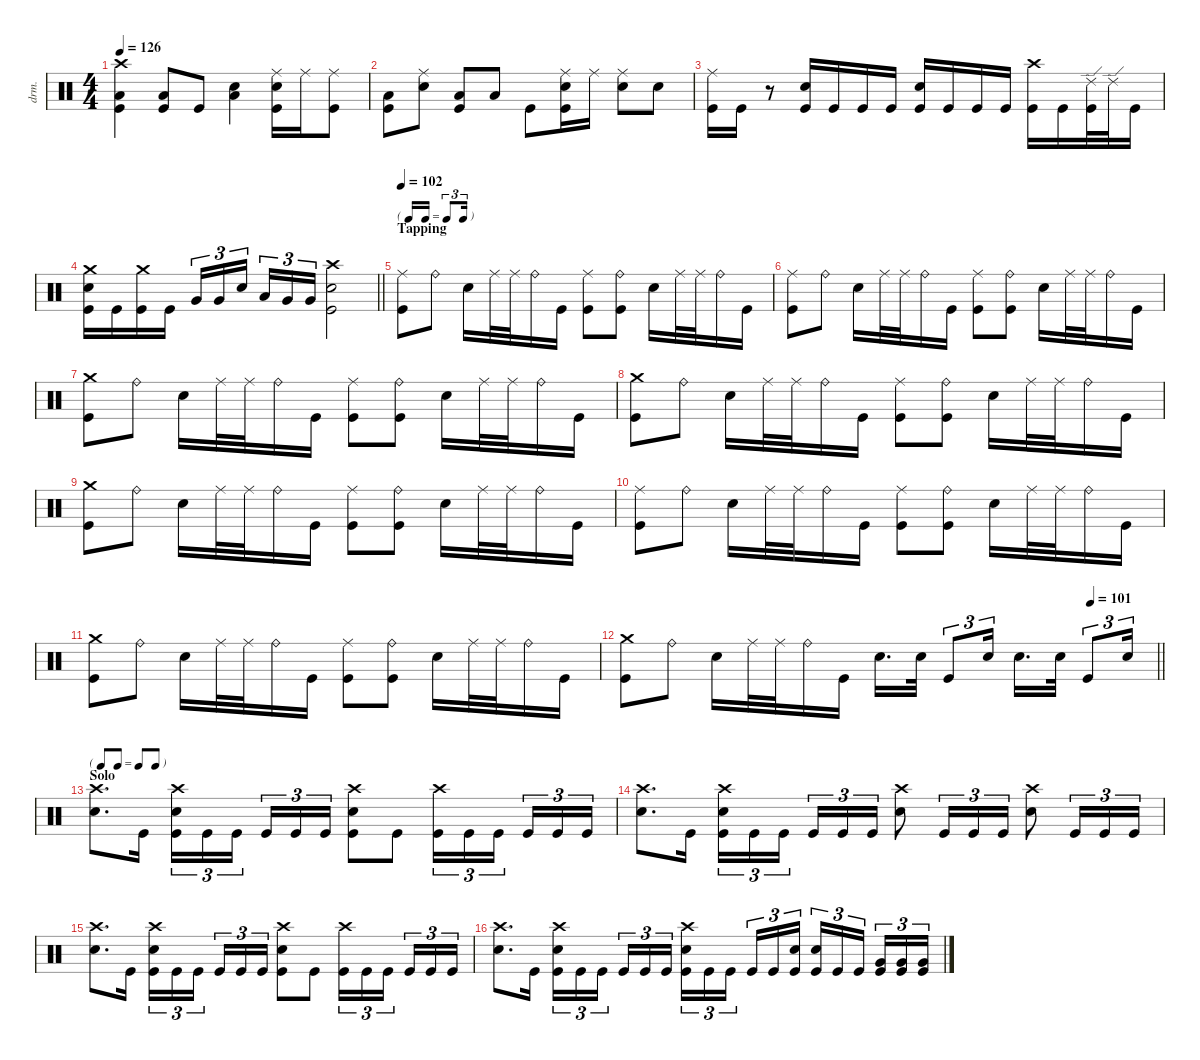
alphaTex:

\defaultSystemsLayout 4
\hideDynamics
\bracketExtendMode nobrackets
\track ("Gene Hoglan " "drm.") {instrument percussion}
\staff {score}
\articulation defaults
\ts (4 4)
\tempo 126
\clef neutral
\ks c
("Crash high (hit)" "Low Floor Tom (hit)" "Kick (hit)").4{dy f} ("Low Floor Tom (hit)" "Kick (hit)").8 "Kick (hit)".8 ("Snare (hit) 2" "Low Floor Tom (hit)").4 ("Ride (middle)" "Snare (hit) 2" "Kick (hit)").16 "Ride (middle)".16 ("Ride (middle)" "Kick (hit)").8 |
("Low Floor Tom (hit)" "Kick (hit)").8 ("Ride (middle)" "Snare (hit) 2").8 ("Low Floor Tom (hit)" "Kick (hit)").8 "Low Floor Tom (hit)".8 "Kick (hit)".8 ("Ride (middle)" "Snare (hit) 2" "Kick (hit)").16 "Ride (middle)".16 ("Ride (middle)" "Snare (hit) 2").8 "Snare (hit) 2".8 |
("Ride (middle)" "Kick (hit)").16 "Kick (hit)".16 r.8 ("Snare (hit) 2" "Kick (hit)").16 "Kick (hit)".16 "Kick (hit)".16 "Kick (hit)".16 ("Snare (hit) 2" "Kick (hit)").16 "Kick (hit)".16 "Kick (hit)".16 "Kick (hit)".16 ("Crash high (hit)" "Kick (hit)").16 "Kick (hit)".16 ("Ride (edge) 2" "Kick (hit)").32 "Ride (edge) 2".32 "Kick (hit)".16 |
\barLineRight lightlight
("Crash medium (hit)" "Snare (hit) 2" "Kick (hit)").16 "Kick (hit)".16 ("Crash medium (hit)" "Kick (hit)").16 "Kick (hit)".16 "Very Low Tom (hit)".16{tu (3 2)} "Very Low Tom (hit)".16{tu (3 2)} "Snare (hit) 2".16{tu (3 2)} "Low Tom (hit)".16{tu (3 2)} "Very Low Tom (hit)".16{tu (3 2)} "Very Low Tom (hit)".16{tu (3 2)} ("Crash high (hit)" "Snare (hit) 2" "Kick (hit)").2 |
\tf triplet16th
\section ("" "Tapping")
\tempo 102
("Ride (middle)" "Kick (hit)").8 "Ride (bell)".8 "Snare (hit) 2".16 "Ride (middle)".32 "Ride (middle)".32 "Ride (bell)".16 "Kick (hit)".16 ("Ride (middle)" "Kick (hit)").8 ("Ride (bell)" "Kick (hit)").8 "Snare (hit) 2".16 "Ride (middle)".32 "Ride (middle)".32 "Ride (bell)".16 "Kick (hit)".16 |
("Ride (middle)" "Kick (hit)").8 "Ride (bell)".8 "Snare (hit) 2".16 "Ride (middle)".32 "Ride (middle)".32 "Ride (bell)".16 "Kick (hit)".16 ("Ride (middle)" "Kick (hit)").8 ("Ride (bell)" "Kick (hit)").8 "Snare (hit) 2".16 "Ride (middle)".32 "Ride (middle)".32 "Ride (bell)".16 "Kick (hit)".16 |
("Crash medium (hit)" "Kick (hit)").8 "Ride (bell)".8 "Snare (hit) 2".16 "Ride (middle)".32 "Ride (middle)".32 "Ride (bell)".16 "Kick (hit)".16 ("Ride (middle)" "Kick (hit)").8 ("Ride (bell)" "Kick (hit)").8 "Snare (hit) 2".16 "Ride (middle)".32 "Ride (middle)".32 "Ride (bell)".16 "Kick (hit)".16 |
("Crash medium (hit)" "Kick (hit)").8 "Ride (bell)".8 "Snare (hit) 2".16 "Ride (middle)".32 "Ride (middle)".32 "Ride (bell)".16 "Kick (hit)".16 ("Ride (middle)" "Kick (hit)").8 ("Ride (bell)" "Kick (hit)").8 "Snare (hit) 2".16 "Ride (middle)".32 "Ride (middle)".32 "Ride (bell)".16 "Kick (hit)".16 |
("Crash medium (hit)" "Kick (hit)").8 "Ride (bell)".8 "Snare (hit) 2".16 "Ride (middle)".32 "Ride (middle)".32 "Ride (bell)".16 "Kick (hit)".16 ("Ride (middle)" "Kick (hit)").8 ("Ride (bell)" "Kick (hit)").8 "Snare (hit) 2".16 "Ride (middle)".32 "Ride (middle)".32 "Ride (bell)".16 "Kick (hit)".16 |
("Ride (middle)" "Kick (hit)").8 "Ride (bell)".8 "Snare (hit) 2".16 "Ride (middle)".32 "Ride (middle)".32 "Ride (bell)".16 "Kick (hit)".16 ("Ride (middle)" "Kick (hit)").8 ("Ride (bell)" "Kick (hit)").8 "Snare (hit) 2".16 "Ride (middle)".32 "Ride (middle)".32 "Ride (bell)".16 "Kick (hit)".16 |
("Crash medium (hit)" "Kick (hit)").8 "Ride (bell)".8 "Snare (hit) 2".16 "Ride (middle)".32 "Ride (middle)".32 "Ride (bell)".16 "Kick (hit)".16 ("Ride (middle)" "Kick (hit)").8 ("Ride (bell)" "Kick (hit)").8 "Snare (hit) 2".16 "Ride (middle)".32 "Ride (middle)".32 "Ride (bell)".16 "Kick (hit)".16 |
\tempo (101 0.875)
\barLineRight lightlight
("Crash medium (hit)" "Kick (hit)").8 "Ride (bell)".8 "Snare (hit) 2".16 "Ride (middle)".32 "Ride (middle)".32 "Ride (bell)".16 "Kick (hit)".16 "Snare (hit) 2".16{d} "Snare (hit) 2".32 "Kick (hit)".8{tu (3 2)} "Snare (hit) 2".16{tu (3 2)} "Snare (hit) 2".16{d} "Snare (hit) 2".32 "Kick (hit)".8{tu (3 2)} "Snare (hit) 2".16{tu (3 2)} |
\tf none
\section ("" "Solo")
("Crash high (hit)" "Snare (hit) 2").8{d} "Kick (hit)".16 ("Crash high (hit)" "Snare (hit) 2" "Kick (hit)").16{tu (3 2)} "Kick (hit)".16{tu (3 2)} "Kick (hit)".16{tu (3 2)} "Kick (hit)".16{tu (3 2)} "Kick (hit)".16{tu (3 2)} "Kick (hit)".16{tu (3 2)} ("Crash high (hit)" "Snare (hit) 2" "Kick (hit)").8 "Kick (hit)".8 ("Crash high (hit)" "Kick (hit)").16{tu (3 2)} "Kick (hit)".16{tu (3 2)} "Kick (hit)".16{tu (3 2)} "Kick (hit)".16{tu (3 2)} "Kick (hit)".16{tu (3 2)} "Kick (hit)".16{tu (3 2)} |
("Crash high (hit)" "Snare (hit) 2").8{d} "Kick (hit)".16 ("Crash high (hit)" "Snare (hit) 2" "Kick (hit)").16{tu (3 2)} "Kick (hit)".16{tu (3 2)} "Kick (hit)".16{tu (3 2)} "Kick (hit)".16{tu (3 2)} "Kick (hit)".16{tu (3 2)} "Kick (hit)".16{tu (3 2)} ("Crash high (hit)" "Snare (hit) 2").8 "Kick (hit)".16{tu (3 2)} "Kick (hit)".16{tu (3 2)} "Kick (hit)".16{tu (3 2)} ("Crash high (hit)" "Snare (hit) 2").8 "Kick (hit)".16{tu (3 2)} "Kick (hit)".16{tu (3 2)} "Kick (hit)".16{tu (3 2)} |
("Crash high (hit)" "Snare (hit) 2").8{d} "Kick (hit)".16 ("Crash high (hit)" "Snare (hit) 2" "Kick (hit)").16{tu (3 2)} "Kick (hit)".16{tu (3 2)} "Kick (hit)".16{tu (3 2)} "Kick (hit)".16{tu (3 2)} "Kick (hit)".16{tu (3 2)} "Kick (hit)".16{tu (3 2)} ("Crash high (hit)" "Snare (hit) 2" "Kick (hit)").8 "Kick (hit)".8 ("Crash high (hit)" "Kick (hit)").16{tu (3 2)} "Kick (hit)".16{tu (3 2)} "Kick (hit)".16{tu (3 2)} "Kick (hit)".16{tu (3 2)} "Kick (hit)".16{tu (3 2)} "Kick (hit)".16{tu (3 2)} |
("Crash high (hit)" "Snare (hit) 2").8{d} "Kick (hit)".16 ("Crash high (hit)" "Snare (hit) 2" "Kick (hit)").16{tu (3 2)} "Kick (hit)".16{tu (3 2)} "Kick (hit)".16{tu (3 2)} "Kick (hit)".16{tu (3 2)} "Kick (hit)".16{tu (3 2)} "Kick (hit)".16{tu (3 2)} ("Crash high (hit)" "Snare (hit) 2" "Kick (hit)").16{tu (3 2)} "Kick (hit)".16{tu (3 2)} "Kick (hit)".16{tu (3 2)} "Kick (hit)".16{tu (3 2)} "Kick (hit)".16{tu (3 2)} ("Snare (hit) 2" "Kick (hit)").16{tu (3 2)} ("Snare (hit) 2" "Kick (hit)").16{tu (3 2)} "Kick (hit)".16{tu (3 2)} "Kick (hit)".16{tu (3 2)} ("Very Low Tom (hit)" "Kick (hit)").16{tu (3 2)} ("Very Low Tom (hit)" "Kick (hit)").16{tu (3 2)} ("Very Low Tom (hit)" "Kick (hit)").16{tu (3 2)}
